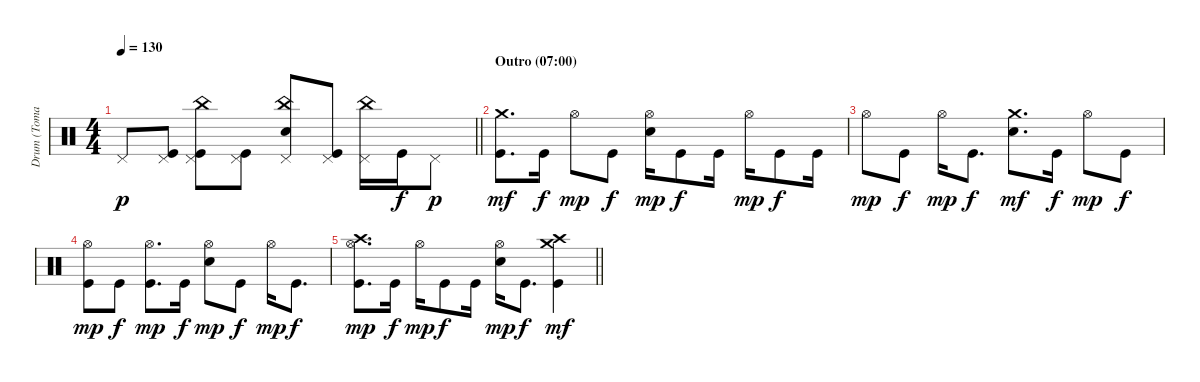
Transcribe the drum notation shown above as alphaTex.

\track ("Drum (Tomas Haake)" "Drum (Toma") {instrument percussion}
\staff {score}
\articulation defaults
\ts (4 4)
\tempo 130
\clef neutral
\barLineRight lightlight
\ks c "Pedal Hi-Hat (hit)".8{dy p}
("Pedal Hi-Hat (hit)" "Kick (hit)").8 ("China (hit)" "Pedal Hi-Hat (hit)" "Kick (hit)").8 ("Pedal Hi-Hat (hit)" "Kick (hit)").8 ("China (hit)" "Pedal Hi-Hat (hit)" "Electric Snare (hit)").8 ("Pedal Hi-Hat (hit)" "Kick (hit)").8 ("China (hit)" "Pedal Hi-Hat (hit)").16 "Kick (hit)".16{dy f} "Pedal Hi-Hat (hit)".8{dy p} |
\section ("" "Outro (07:00)")
("Crash medium (hit)" "Kick (hit)").8{d dy mf} "Kick (hit)".16{dy f} "Hi-Hat (open)".8{dy mp} "Kick (hit)".8{dy f} ("Hi-Hat (open)" "Electric Snare (hit)").16{dy mp} "Kick (hit)".8{dy f} "Kick (hit)".16 "Hi-Hat (open)".16{dy mp} "Kick (hit)".8{dy f} "Kick (hit)".16 |
"Hi-Hat (open)".8{dy mp} "Kick (hit)".8{dy f} "Hi-Hat (open)".16{dy mp} "Kick (hit)".8{d dy f} ("Crash medium (hit)" "Electric Snare (hit)").8{d dy mf} "Kick (hit)".16{dy f} "Hi-Hat (open)".8{dy mp} "Kick (hit)".8{dy f} |
("Hi-Hat (open)" "Kick (hit)").8{dy mp} "Kick (hit)".8{dy f} ("Hi-Hat (open)" "Kick (hit)").8{d dy mp} "Kick (hit)".16{dy f} ("Hi-Hat (open)" "Electric Snare (hit)").8{dy mp} "Kick (hit)".8{dy f} "Hi-Hat (open)".16{dy mp} "Kick (hit)".8{d dy f} |
\barLineRight lightlight
("Crash high (hit)" "Hi-Hat (open)" "Kick (hit)").8{d dy mp} "Kick (hit)".16{dy f} "Hi-Hat (open)".16{dy mp} "Kick (hit)".8{dy f} "Kick (hit)".16 ("Hi-Hat (open)" "Electric Snare (hit)").16{dy mp} "Kick (hit)".8{d dy f} ("Crash medium (hit)" "Crash high (hit)" "Kick (hit)").4{dy mf}
